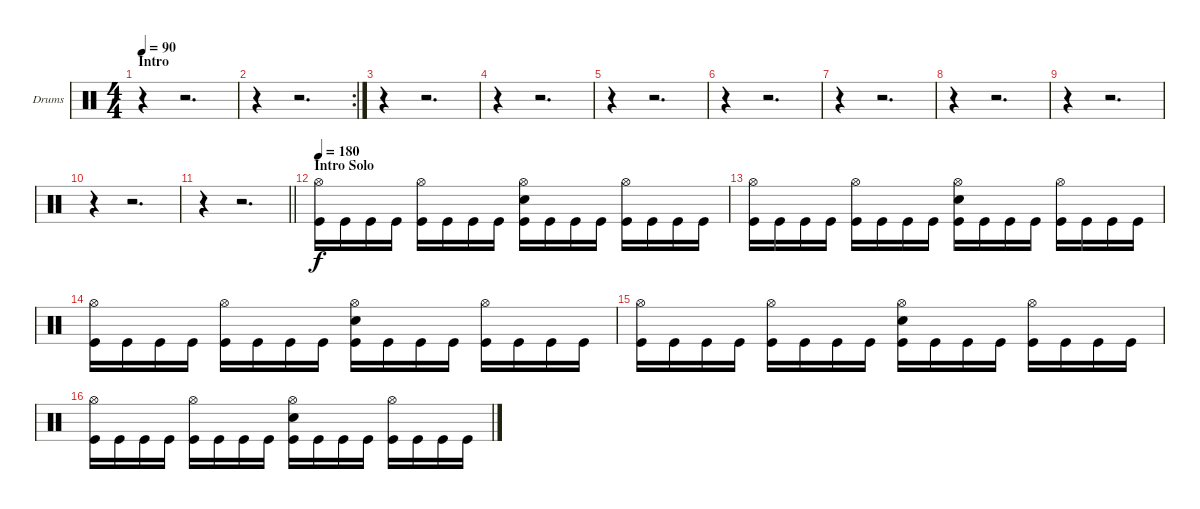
\bracketExtendMode groupsimilarinstruments
\firstSystemTrackNameOrientation horizontal
\otherSystemsTrackNameOrientation horizontal
\track ("Drumkit" "Drums") {instrument percussion}
\staff {score}
\articulation defaults
\ts (4 4)
\beaming (8 2 2 2 2)
\section ("" "Intro")
\tempo 90
\clef neutral
\ks c
r.4{dy f} r.2{d} |
\rc 2
r.4 r.2{d} |
r.4 r.2{d} |
r.4 r.2{d} |
r.4 r.2{d} |
r.4 r.2{d} |
r.4 r.2{d} |
r.4 r.2{d} |
r.4 r.2{d} |
r.4 r.2{d} |
\barLineRight lightlight
r.4 r.2{d} |
\section ("" "Intro Solo")
\tempo 180
("Hi-Hat (open)" "Kick (hit)").16 "Kick (hit)".16 "Kick (hit)".16 "Kick (hit)".16 ("Hi-Hat (open)" "Kick (hit)").16 "Kick (hit)".16 "Kick (hit)".16 "Kick (hit)".16 ("Hi-Hat (open)" "Snare (hit) 2" "Kick (hit)").16 "Kick (hit)".16 "Kick (hit)".16 "Kick (hit)".16 ("Hi-Hat (open)" "Kick (hit)").16 "Kick (hit)".16 "Kick (hit)".16 "Kick (hit)".16 |
("Hi-Hat (open)" "Kick (hit)").16 "Kick (hit)".16 "Kick (hit)".16 "Kick (hit)".16 ("Hi-Hat (open)" "Kick (hit)").16 "Kick (hit)".16 "Kick (hit)".16 "Kick (hit)".16 ("Hi-Hat (open)" "Snare (hit) 2" "Kick (hit)").16 "Kick (hit)".16 "Kick (hit)".16 "Kick (hit)".16 ("Hi-Hat (open)" "Kick (hit)").16 "Kick (hit)".16 "Kick (hit)".16 "Kick (hit)".16 |
("Hi-Hat (open)" "Kick (hit)").16 "Kick (hit)".16 "Kick (hit)".16 "Kick (hit)".16 ("Hi-Hat (open)" "Kick (hit)").16 "Kick (hit)".16 "Kick (hit)".16 "Kick (hit)".16 ("Hi-Hat (open)" "Snare (hit) 2" "Kick (hit)").16 "Kick (hit)".16 "Kick (hit)".16 "Kick (hit)".16 ("Hi-Hat (open)" "Kick (hit)").16 "Kick (hit)".16 "Kick (hit)".16 "Kick (hit)".16 |
("Hi-Hat (open)" "Kick (hit)").16 "Kick (hit)".16 "Kick (hit)".16 "Kick (hit)".16 ("Hi-Hat (open)" "Kick (hit)").16 "Kick (hit)".16 "Kick (hit)".16 "Kick (hit)".16 ("Hi-Hat (open)" "Snare (hit) 2" "Kick (hit)").16 "Kick (hit)".16 "Kick (hit)".16 "Kick (hit)".16 ("Hi-Hat (open)" "Kick (hit)").16 "Kick (hit)".16 "Kick (hit)".16 "Kick (hit)".16 |
("Hi-Hat (open)" "Kick (hit)").16 "Kick (hit)".16 "Kick (hit)".16 "Kick (hit)".16 ("Hi-Hat (open)" "Kick (hit)").16 "Kick (hit)".16 "Kick (hit)".16 "Kick (hit)".16 ("Hi-Hat (open)" "Snare (hit) 2" "Kick (hit)").16 "Kick (hit)".16 "Kick (hit)".16 "Kick (hit)".16 ("Hi-Hat (open)" "Kick (hit)").16 "Kick (hit)".16 "Kick (hit)".16 "Kick (hit)".16
